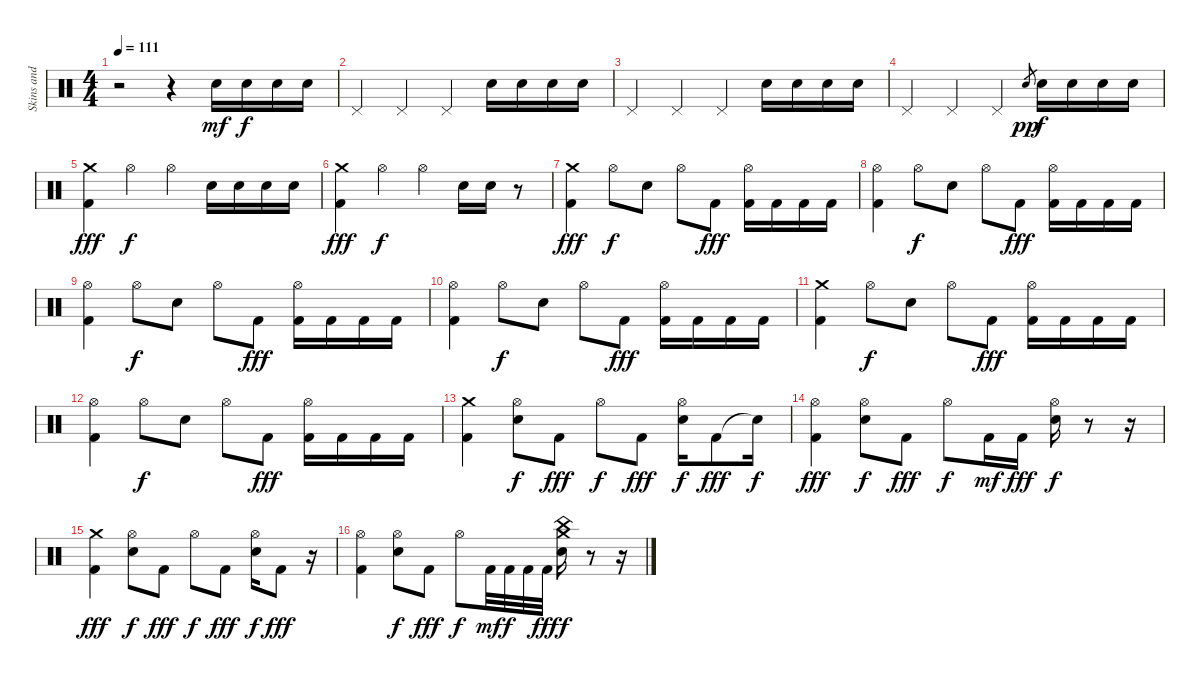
\track ("Skins and Cymbals" "Skins and ") {instrument percussion}
\staff {score}
\articulation defaults
\ts (4 4)
\tempo 111
\clef neutral
\ks c
r.2{dy mf} r.4 "Electric Snare (hit)".16 "Electric Snare (hit)".16{dy f} "Electric Snare (hit)".16 "Electric Snare (hit)".16 |
"Pedal Hi-Hat (hit)".4 "Pedal Hi-Hat (hit)".4 "Pedal Hi-Hat (hit)".4 "Electric Snare (hit)".16 "Electric Snare (hit)".16 "Electric Snare (hit)".16 "Electric Snare (hit)".16 |
"Pedal Hi-Hat (hit)".4 "Pedal Hi-Hat (hit)".4 "Pedal Hi-Hat (hit)".4 "Electric Snare (hit)".16 "Electric Snare (hit)".16 "Electric Snare (hit)".16 "Electric Snare (hit)".16 |
"Pedal Hi-Hat (hit)".4 "Pedal Hi-Hat (hit)".4 "Pedal Hi-Hat (hit)".4 "Electric Snare (hit)".8{gr dy pp} "Electric Snare (hit)".16{dy f} "Electric Snare (hit)".16 "Electric Snare (hit)".16 "Electric Snare (hit)".16 |
("Crash medium (hit)" "Kick (hit) 2").4{dy fff} "Hi-Hat (open)".4{dy f} "Hi-Hat (open)".4 "Electric Snare (hit)".16 "Electric Snare (hit)".16 "Electric Snare (hit)".16 "Electric Snare (hit)".16 |
("Crash medium (hit)" "Kick (hit) 2").4{dy fff} "Hi-Hat (open)".4{dy f} "Hi-Hat (open)".4 "Electric Snare (hit)".16 "Electric Snare (hit)".16 r.8 |
("Crash medium (hit)" "Kick (hit) 2").4{dy fff} "Hi-Hat (open)".8{dy f} "Electric Snare (hit)".8 "Hi-Hat (open)".8 "Kick (hit) 2".8{dy fff} ("Hi-Hat (open)" "Kick (hit) 2").16 "Kick (hit) 2".16 "Kick (hit) 2".16 "Kick (hit) 2".16 |
("Hi-Hat (open)" "Kick (hit) 2").4 "Hi-Hat (open)".8{dy f} "Electric Snare (hit)".8 "Hi-Hat (open)".8 "Kick (hit) 2".8{dy fff} ("Hi-Hat (open)" "Kick (hit) 2").16 "Kick (hit) 2".16 "Kick (hit) 2".16 "Kick (hit) 2".16 |
("Hi-Hat (open)" "Kick (hit) 2").4 "Hi-Hat (open)".8{dy f} "Electric Snare (hit)".8 "Hi-Hat (open)".8 "Kick (hit) 2".8{dy fff} ("Hi-Hat (open)" "Kick (hit) 2").16 "Kick (hit) 2".16 "Kick (hit) 2".16 "Kick (hit) 2".16 |
("Hi-Hat (open)" "Kick (hit) 2").4 "Hi-Hat (open)".8{dy f} "Electric Snare (hit)".8 "Hi-Hat (open)".8 "Kick (hit) 2".8{dy fff} ("Hi-Hat (open)" "Kick (hit) 2").16 "Kick (hit) 2".16 "Kick (hit) 2".16 "Kick (hit) 2".16 |
("Crash medium (hit)" "Kick (hit) 2").4 "Hi-Hat (open)".8{dy f} "Electric Snare (hit)".8 "Hi-Hat (open)".8 "Kick (hit) 2".8{dy fff} ("Hi-Hat (open)" "Kick (hit) 2").16 "Kick (hit) 2".16 "Kick (hit) 2".16 "Kick (hit) 2".16 |
("Hi-Hat (open)" "Kick (hit) 2").4 "Hi-Hat (open)".8{dy f} "Electric Snare (hit)".8 "Hi-Hat (open)".8 "Kick (hit) 2".8{dy fff} ("Hi-Hat (open)" "Kick (hit) 2").16 "Kick (hit) 2".16 "Kick (hit) 2".16 "Kick (hit) 2".16 |
("Crash medium (hit)" "Kick (hit) 2").4 ("Hi-Hat (open)" "Electric Snare (hit)").8{dy f} "Kick (hit) 2".8{dy fff} "Hi-Hat (open)".8{dy f} "Kick (hit) 2".8{dy fff} ("Hi-Hat (open)" "Electric Snare (hit)").16{dy f} "Kick (hit) 2".8{dy fff} "Snare (hit)"{t}.16{dy f} |
("Hi-Hat (open)" "Kick (hit) 2").4{dy fff} ("Hi-Hat (open)" "Electric Snare (hit)").8{dy f} "Kick (hit) 2".8{dy fff} "Hi-Hat (open)".8{dy f} "Kick (hit) 2".16{dy mf} "Kick (hit) 2".16{dy fff} ("Hi-Hat (open)" "Electric Snare (hit)").16{dy f} r.8 r.16 |
("Crash medium (hit)" "Kick (hit) 2").4{dy fff} ("Hi-Hat (open)" "Electric Snare (hit)").8{dy f} "Kick (hit) 2".8{dy fff} "Hi-Hat (open)".8{dy f} "Kick (hit) 2".8{dy fff} ("Hi-Hat (open)" "Electric Snare (hit)").16{dy f} "Kick (hit) 2".8{dy fff} r.16 |
("Hi-Hat (open)" "Kick (hit) 2").4 ("Hi-Hat (open)" "Electric Snare (hit)").8{dy f} "Kick (hit) 2".8{dy fff} "Hi-Hat (open)".8{dy f} "Kick (hit) 2".32{dy mf} "Kick (hit) 2".32{dy f} "Kick (hit) 2".32 "Kick (hit) 2".32{dy fff} ("Crash medium (hit)" "China (hit)" "Electric Snare (hit)").16{dy f} r.8 r.16
